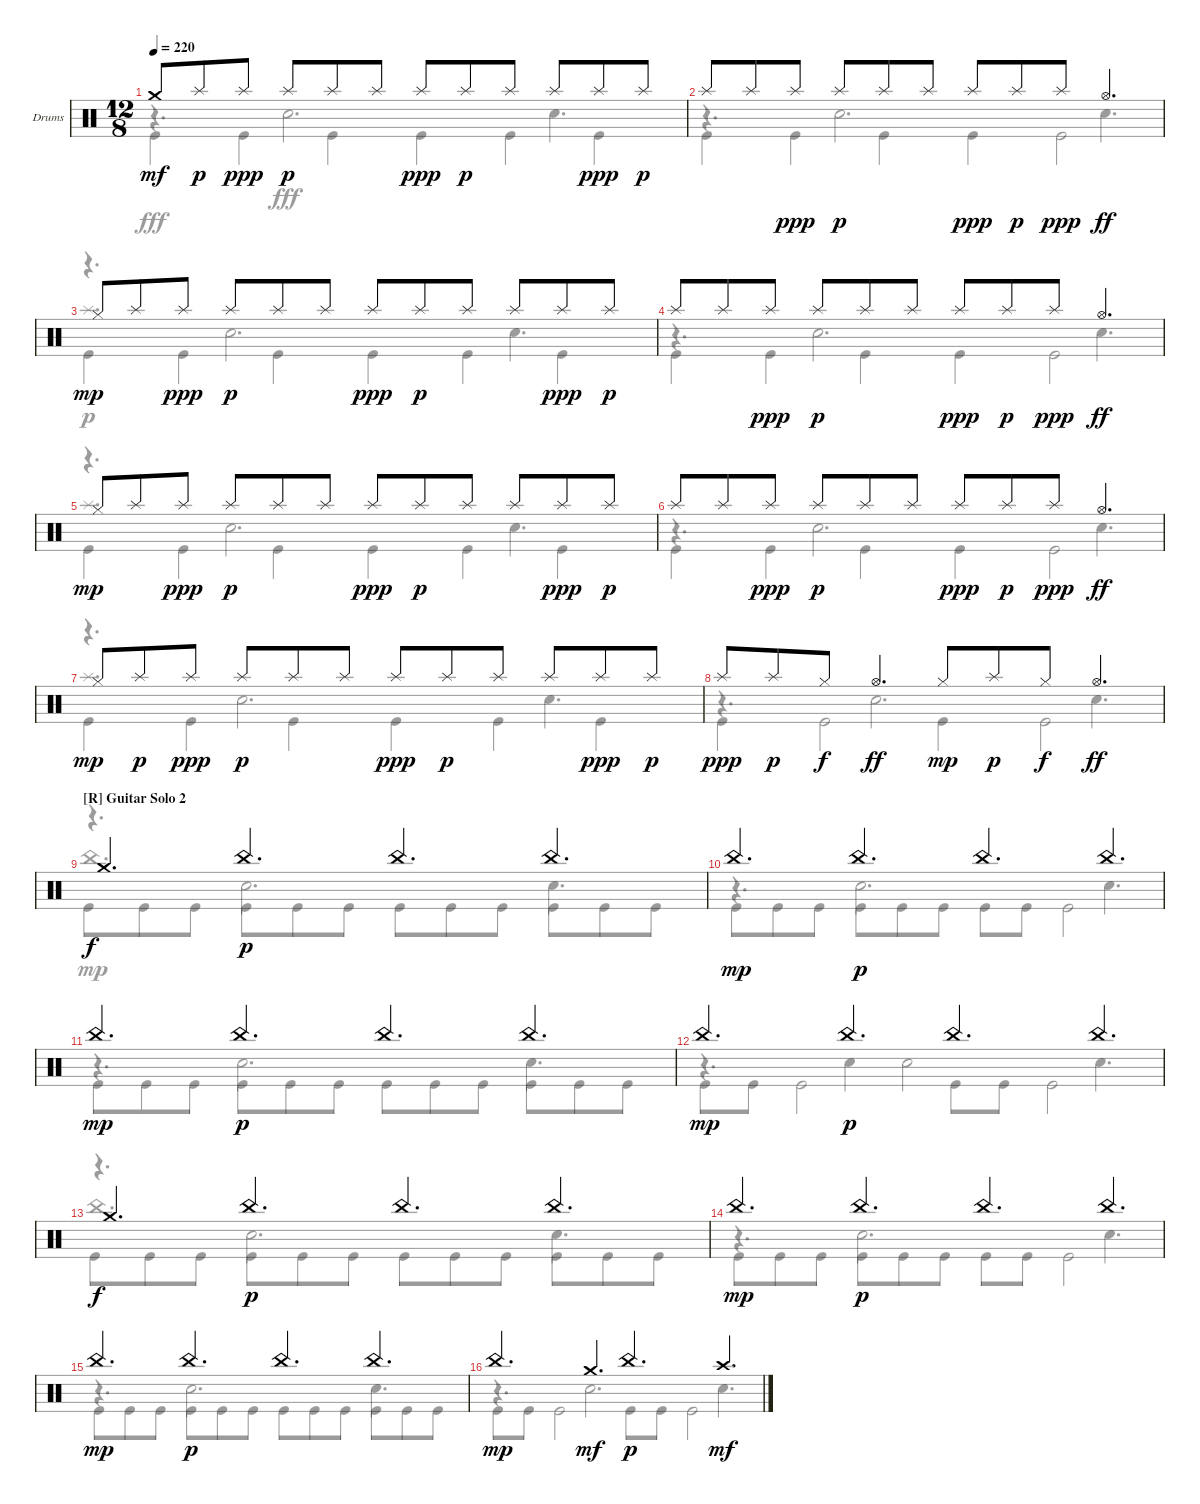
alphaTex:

\defaultSystemsLayout 4
\bracketExtendMode groupsimilarinstruments
\firstSystemTrackNameOrientation horizontal
\otherSystemsTrackNameOrientation horizontal
\track ("Drumkit" "Drums") {instrument percussion}
\staff {score}
\articulation defaults
\voice
\ts (12 8)
\tempo 220
\clef neutral
\ks c "Crash medium (hit)".8{dy mf} "Splash (hit)".8{dy p} "Splash (hit)".8{dy ppp} "Splash (hit)".8{dy p} "Splash (hit)".8 "Splash (hit)".8 "Splash (hit)".8{dy ppp} "Splash (hit)".8{dy p} "Splash (hit)".8 "Splash (hit)".8 "Splash (hit)".8{dy ppp} "Splash (hit)".8{dy p}
|
"Splash (hit)".8 "Splash (hit)".8 "Splash (hit)".8{dy ppp} "Splash (hit)".8{dy p} "Splash (hit)".8 "Splash (hit)".8 "Splash (hit)".8{dy ppp} "Splash (hit)".8{dy p} "Splash (hit)".8{dy ppp} "Hi-Hat (open)".4{d dy ff} |
"Hi-Hat (closed)".8{dy mp} "Splash (hit)".8 "Splash (hit)".8{dy ppp} "Splash (hit)".8{dy p} "Splash (hit)".8 "Splash (hit)".8 "Splash (hit)".8{dy ppp} "Splash (hit)".8{dy p} "Splash (hit)".8 "Splash (hit)".8 "Splash (hit)".8{dy ppp} "Splash (hit)".8{dy p} |
"Splash (hit)".8 "Splash (hit)".8 "Splash (hit)".8{dy ppp} "Splash (hit)".8{dy p} "Splash (hit)".8 "Splash (hit)".8 "Splash (hit)".8{dy ppp} "Splash (hit)".8{dy p} "Splash (hit)".8{dy ppp} "Hi-Hat (open)".4{d dy ff} |
"Hi-Hat (closed)".8{dy mp} "Splash (hit)".8 "Splash (hit)".8{dy ppp} "Splash (hit)".8{dy p} "Splash (hit)".8 "Splash (hit)".8 "Splash (hit)".8{dy ppp} "Splash (hit)".8{dy p} "Splash (hit)".8 "Splash (hit)".8 "Splash (hit)".8{dy ppp} "Splash (hit)".8{dy p} |
"Splash (hit)".8 "Splash (hit)".8 "Splash (hit)".8{dy ppp} "Splash (hit)".8{dy p} "Splash (hit)".8 "Splash (hit)".8 "Splash (hit)".8{dy ppp} "Splash (hit)".8{dy p} "Splash (hit)".8{dy ppp} "Hi-Hat (open)".4{d dy ff} |
"Hi-Hat (closed)".8{dy mp} "Splash (hit)".8{dy p} "Splash (hit)".8{dy ppp} "Splash (hit)".8{dy p} "Splash (hit)".8 "Splash (hit)".8 "Splash (hit)".8{dy ppp} "Splash (hit)".8{dy p} "Splash (hit)".8 "Splash (hit)".8 "Splash (hit)".8{dy ppp} "Splash (hit)".8{dy p} |
"Splash (hit)".8{dy ppp} "Splash (hit)".8{dy p} "Hi-Hat (closed)".8{dy f} "Hi-Hat (open)".4{d dy ff} "Hi-Hat (closed)".8{dy mp} "Splash (hit)".8{dy p} "Hi-Hat (closed)".8{dy f} "Hi-Hat (open)".4{d dy ff} |
\section ("R" "Guitar Solo 2")
"Crash medium (hit)".4{d dy f} "China (hit)".4{d dy p} "China (hit)".4{d} "China (hit)".4{d} |
"China (hit)".4{d dy mp} "China (hit)".4{d dy p} "China (hit)".4{d} "China (hit)".4{d} |
"China (hit)".4{d dy mp} "China (hit)".4{d dy p} "China (hit)".4{d} "China (hit)".4{d} |
"China (hit)".4{d dy mp} "China (hit)".4{d dy p} "China (hit)".4{d} "China (hit)".4{d} |
"Crash medium (hit)".4{d dy f} "China (hit)".4{d dy p} "China (hit)".4{d} "China (hit)".4{d} |
"China (hit)".4{d dy mp} "China (hit)".4{d dy p} "China (hit)".4{d} "China (hit)".4{d} |
"China (hit)".4{d dy mp} "China (hit)".4{d dy p} "China (hit)".4{d} "China (hit)".4{d} |
"China (hit)".4{d dy mp} "Crash medium (hit)".4{d dy mf} "China (hit)".4{d dy p} "Crash high (hit)".4{d dy mf}
\voice
\clef neutral
\ottava regular
\simile none
\ks c
r.4{d dy fff} "Snare (hit) 2".2{d} "Snare (hit) 2".4{d} |
r.4{d} "Snare (hit) 2".2{d} "Snare (hit) 2".4{d} |
r.4{d} "Snare (hit) 2".2{d} "Snare (hit) 2".4{d} |
r.4{d} "Snare (hit) 2".2{d} "Snare (hit) 2".4{d} |
r.4{d} "Snare (hit) 2".2{d} "Snare (hit) 2".4{d} |
r.4{d} "Snare (hit) 2".2{d} "Snare (hit) 2".4{d} |
r.4{d} "Snare (hit) 2".2{d} "Snare (hit) 2".4{d} |
r.4{d} "Snare (hit) 2".2{d} "Snare (hit) 2".4{d} |
r.4{d} "Snare (hit) 2".2{d} "Snare (hit) 2".4{d} |
r.4{d} "Snare (hit) 2".2{d} "Snare (hit) 2".4{d} |
r.4{d} "Snare (hit) 2".2{d} "Snare (hit) 2".4{d} |
r.4{d} "Snare (hit) 2".4 "Snare (hit) 2".2 "Snare (hit) 2".4{d} |
r.4{d} "Snare (hit) 2".2{d} "Snare (hit) 2".4{d} |
r.4{d} "Snare (hit) 2".2{d} "Snare (hit) 2".4{d} |
r.4{d} "Snare (hit) 2".2{d} "Snare (hit) 2".4{d} |
r.4{d} "Snare (hit) 2".2{d} "Snare (hit) 2".4{d}
\voice
\clef neutral
\ottava regular
\simile none
\ks c "Kick (hit)".4{dy fff} "Kick (hit)".4 "Kick (hit)".4 "Kick (hit)".4 "Kick (hit)".4 "Kick (hit)".4
|
"Kick (hit)".4 "Kick (hit)".4 "Kick (hit)".4 "Kick (hit)".4 "Kick (hit)".2 |
"Kick (hit)".4 "Kick (hit)".4 "Kick (hit)".4 "Kick (hit)".4 "Kick (hit)".4 "Kick (hit)".4 |
"Kick (hit)".4 "Kick (hit)".4 "Kick (hit)".4 "Kick (hit)".4 "Kick (hit)".2 |
"Kick (hit)".4 "Kick (hit)".4 "Kick (hit)".4 "Kick (hit)".4 "Kick (hit)".4 "Kick (hit)".4 |
"Kick (hit)".4 "Kick (hit)".4 "Kick (hit)".4 "Kick (hit)".4 "Kick (hit)".2 |
"Kick (hit)".4 "Kick (hit)".4 "Kick (hit)".4 "Kick (hit)".4 "Kick (hit)".4 "Kick (hit)".4 |
"Kick (hit)".4 "Kick (hit)".2 "Kick (hit)".4 "Kick (hit)".2 |
"Kick (hit)".8 "Kick (hit)".8 "Kick (hit)".8 "Kick (hit)".8 "Kick (hit)".8 "Kick (hit)".8 "Kick (hit)".8 "Kick (hit)".8 "Kick (hit)".8 "Kick (hit)".8 "Kick (hit)".8 "Kick (hit)".8 |
"Kick (hit)".8 "Kick (hit)".8 "Kick (hit)".8 "Kick (hit)".8 "Kick (hit)".8 "Kick (hit)".8 "Kick (hit)".8 "Kick (hit)".8 "Kick (hit)".2 |
"Kick (hit)".8 "Kick (hit)".8 "Kick (hit)".8 "Kick (hit)".8 "Kick (hit)".8 "Kick (hit)".8 "Kick (hit)".8 "Kick (hit)".8 "Kick (hit)".8 "Kick (hit)".8 "Kick (hit)".8 "Kick (hit)".8 |
"Kick (hit)".8 "Kick (hit)".8 "Kick (hit)".2 "Kick (hit)".8 "Kick (hit)".8 "Kick (hit)".2 |
"Kick (hit)".8 "Kick (hit)".8 "Kick (hit)".8 "Kick (hit)".8 "Kick (hit)".8 "Kick (hit)".8 "Kick (hit)".8 "Kick (hit)".8 "Kick (hit)".8 "Kick (hit)".8 "Kick (hit)".8 "Kick (hit)".8 |
"Kick (hit)".8 "Kick (hit)".8 "Kick (hit)".8 "Kick (hit)".8 "Kick (hit)".8 "Kick (hit)".8 "Kick (hit)".8 "Kick (hit)".8 "Kick (hit)".2 |
"Kick (hit)".8 "Kick (hit)".8 "Kick (hit)".8 "Kick (hit)".8 "Kick (hit)".8 "Kick (hit)".8 "Kick (hit)".8 "Kick (hit)".8 "Kick (hit)".8 "Kick (hit)".8 "Kick (hit)".8 "Kick (hit)".8 |
"Kick (hit)".8 "Kick (hit)".8 "Kick (hit)".2 "Kick (hit)".8 "Kick (hit)".8 "Kick (hit)".2
\voice
\clef neutral
\ottava regular
\simile none
\ks c
|
|
"Splash (hit)".1{d dy p} |
|
"Splash (hit)".1{d} |
|
"Splash (hit)".1{d} |
|
"China (hit)".1{d dy mp} |
|
|
|
"China (hit)".1{d} |
|
|
